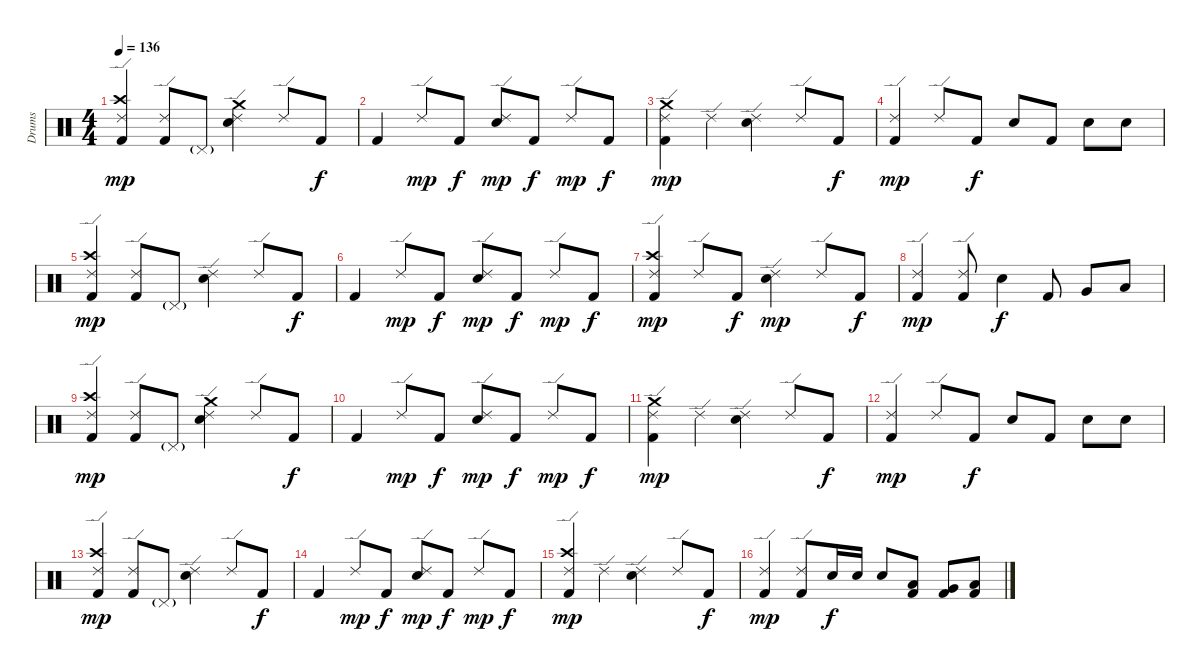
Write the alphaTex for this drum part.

\track ("Drums" "Drums") {instrument percussion}
\staff {score}
\articulation defaults
\ts (4 4)
\tempo 136
\clef neutral
\ks c
("Ride (edge) 2" "Crash high (hit)" "Kick (hit) 2").4{dy mp} ("Ride (edge) 2" "Kick (hit) 2").8 "Pedal Hi-Hat (hit)"{g}.8 ("Ride (edge) 2" "Crash medium (hit)" "Snare (hit) 2").4 "Ride (edge) 2".8 "Kick (hit) 2".8{dy f} |
"Kick (hit) 2".4 "Ride (edge) 2".8{dy mp} "Kick (hit) 2".8{dy f} ("Ride (edge) 2" "Snare (hit) 2").8{dy mp} "Kick (hit) 2".8{dy f} "Ride (edge) 2".8{dy mp} "Kick (hit) 2".8{dy f} |
("Ride (edge) 2" "Crash medium (hit)" "Kick (hit) 2").4{dy mp} "Ride (edge) 2".4 ("Ride (edge) 2" "Snare (hit) 2").4 "Ride (edge) 2".8 "Kick (hit) 2".8{dy f} |
("Ride (edge) 2" "Kick (hit) 2").4{dy mp} "Ride (edge) 2".8 "Kick (hit) 2".8{dy f} "Snare (hit) 2".8 "Kick (hit) 2".8 "Snare (hit) 2".8 "Snare (hit) 2".8 |
("Ride (edge) 2" "Crash high (hit)" "Kick (hit) 2").4{dy mp} ("Ride (edge) 2" "Kick (hit) 2").8 "Pedal Hi-Hat (hit)"{g}.8 ("Ride (edge) 2" "Snare (hit) 2").4 "Ride (edge) 2".8 "Kick (hit) 2".8{dy f} |
"Kick (hit) 2".4 "Ride (edge) 2".8{dy mp} "Kick (hit) 2".8{dy f} ("Ride (edge) 2" "Snare (hit) 2").8{dy mp} "Kick (hit) 2".8{dy f} "Ride (edge) 2".8{dy mp} "Kick (hit) 2".8{dy f} |
("Ride (edge) 2" "Crash high (hit)" "Kick (hit) 2").4{dy mp} "Ride (edge) 2".8 "Kick (hit) 2".8{dy f} ("Ride (edge) 2" "Snare (hit) 2").4{dy mp} "Ride (edge) 2".8 "Kick (hit) 2".8{dy f} |
("Ride (edge) 2" "Kick (hit) 2").4{dy mp} ("Ride (edge) 2" "Kick (hit) 2").8 "Snare (hit) 2".4{dy f} "Kick (hit) 2".8 "Very Low Tom (hit)".8 "Low Tom (hit)".8 |
("Ride (edge) 2" "Crash high (hit)" "Kick (hit) 2").4{dy mp} ("Ride (edge) 2" "Kick (hit) 2").8 "Pedal Hi-Hat (hit)"{g}.8 ("Ride (edge) 2" "Crash medium (hit)" "Snare (hit) 2").4 "Ride (edge) 2".8 "Kick (hit) 2".8{dy f} |
"Kick (hit) 2".4 "Ride (edge) 2".8{dy mp} "Kick (hit) 2".8{dy f} ("Ride (edge) 2" "Snare (hit) 2").8{dy mp} "Kick (hit) 2".8{dy f} "Ride (edge) 2".8{dy mp} "Kick (hit) 2".8{dy f} |
("Ride (edge) 2" "Crash medium (hit)" "Kick (hit) 2").4{dy mp} "Ride (edge) 2".4 ("Ride (edge) 2" "Snare (hit) 2").4 "Ride (edge) 2".8 "Kick (hit) 2".8{dy f} |
("Ride (edge) 2" "Kick (hit) 2").4{dy mp} "Ride (edge) 2".8 "Kick (hit) 2".8{dy f} "Snare (hit) 2".8 "Kick (hit) 2".8 "Snare (hit) 2".8 "Snare (hit) 2".8 |
("Ride (edge) 2" "Crash high (hit)" "Kick (hit) 2").4{dy mp} ("Ride (edge) 2" "Kick (hit) 2").8 "Pedal Hi-Hat (hit)"{g}.8 ("Ride (edge) 2" "Snare (hit) 2").4 "Ride (edge) 2".8 "Kick (hit) 2".8{dy f} |
"Kick (hit) 2".4 "Ride (edge) 2".8{dy mp} "Kick (hit) 2".8{dy f} ("Ride (edge) 2" "Snare (hit) 2").8{dy mp} "Kick (hit) 2".8{dy f} "Ride (edge) 2".8{dy mp} "Kick (hit) 2".8{dy f} |
("Ride (edge) 2" "Crash high (hit)" "Kick (hit) 2").4{dy mp} "Ride (edge) 2".4 ("Ride (edge) 2" "Snare (hit) 2").4 "Ride (edge) 2".8 "Kick (hit) 2".8{dy f} |
("Ride (edge) 2" "Kick (hit) 2").4{dy mp} ("Ride (edge) 2" "Kick (hit) 2").8 "Snare (hit) 2".16{dy f} "Snare (hit) 2".16 "Snare (hit) 2".8 ("Low Tom (hit)" "Kick (hit) 2").8 ("Very Low Tom (hit)" "Kick (hit) 2").8 ("Low Floor Tom (hit)" "Kick (hit) 2").8
